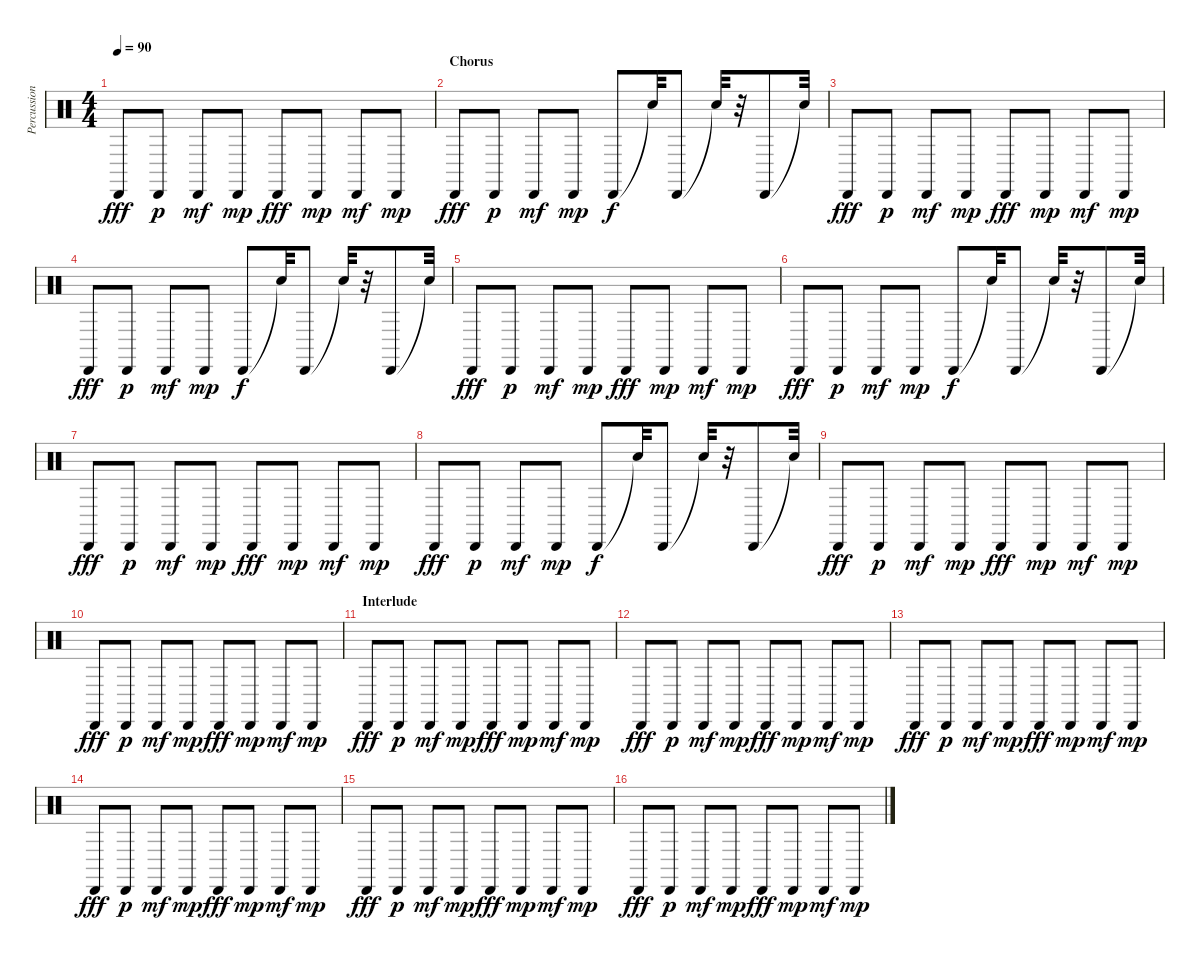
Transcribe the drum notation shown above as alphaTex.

\track ("Percussion" "Percussion") {instrument percussion}
\staff {score}
\articulation defaults
\ts (4 4)
\tempo 90
\clef neutral
\ks c "Cabasa (hit)".8{dy fff} "Cabasa (hit)".8{dy p} "Cabasa (hit)".8{dy mf} "Cabasa (hit)".8{dy mp} "Cabasa (hit)".8{dy fff} "Cabasa (hit)".8{dy mp} "Cabasa (hit)".8{dy mf} "Cabasa (hit)".8{dy mp}
|
\section ("" "Chorus")
"Cabasa (hit)".8{dy fff} "Cabasa (hit)".8{dy p} "Cabasa (hit)".8{dy mf} "Cabasa (hit)".8{dy mp} "Cabasa (hit)".8{dy f} "Snare (hit)"{t}.32 "Cabasa (hit)".8 "Snare (hit)"{t}.32 r.32 "Cabasa (hit)".8 "Snare (hit)"{t}.32 |
"Cabasa (hit)".8{dy fff} "Cabasa (hit)".8{dy p} "Cabasa (hit)".8{dy mf} "Cabasa (hit)".8{dy mp} "Cabasa (hit)".8{dy fff} "Cabasa (hit)".8{dy mp} "Cabasa (hit)".8{dy mf} "Cabasa (hit)".8{dy mp} |
"Cabasa (hit)".8{dy fff} "Cabasa (hit)".8{dy p} "Cabasa (hit)".8{dy mf} "Cabasa (hit)".8{dy mp} "Cabasa (hit)".8{dy f} "Snare (hit)"{t}.32 "Cabasa (hit)".8 "Snare (hit)"{t}.32 r.32 "Cabasa (hit)".8 "Snare (hit)"{t}.32 |
"Cabasa (hit)".8{dy fff} "Cabasa (hit)".8{dy p} "Cabasa (hit)".8{dy mf} "Cabasa (hit)".8{dy mp} "Cabasa (hit)".8{dy fff} "Cabasa (hit)".8{dy mp} "Cabasa (hit)".8{dy mf} "Cabasa (hit)".8{dy mp} |
"Cabasa (hit)".8{dy fff} "Cabasa (hit)".8{dy p} "Cabasa (hit)".8{dy mf} "Cabasa (hit)".8{dy mp} "Cabasa (hit)".8{dy f} "Snare (hit)"{t}.32 "Cabasa (hit)".8 "Snare (hit)"{t}.32 r.32 "Cabasa (hit)".8 "Snare (hit)"{t}.32 |
"Cabasa (hit)".8{dy fff} "Cabasa (hit)".8{dy p} "Cabasa (hit)".8{dy mf} "Cabasa (hit)".8{dy mp} "Cabasa (hit)".8{dy fff} "Cabasa (hit)".8{dy mp} "Cabasa (hit)".8{dy mf} "Cabasa (hit)".8{dy mp} |
"Cabasa (hit)".8{dy fff} "Cabasa (hit)".8{dy p} "Cabasa (hit)".8{dy mf} "Cabasa (hit)".8{dy mp} "Cabasa (hit)".8{dy f} "Snare (hit)"{t}.32 "Cabasa (hit)".8 "Snare (hit)"{t}.32 r.32 "Cabasa (hit)".8 "Snare (hit)"{t}.32 |
"Cabasa (hit)".8{dy fff} "Cabasa (hit)".8{dy p} "Cabasa (hit)".8{dy mf} "Cabasa (hit)".8{dy mp} "Cabasa (hit)".8{dy fff} "Cabasa (hit)".8{dy mp} "Cabasa (hit)".8{dy mf} "Cabasa (hit)".8{dy mp} |
"Cabasa (hit)".8{dy fff} "Cabasa (hit)".8{dy p} "Cabasa (hit)".8{dy mf} "Cabasa (hit)".8{dy mp} "Cabasa (hit)".8{dy fff} "Cabasa (hit)".8{dy mp} "Cabasa (hit)".8{dy mf} "Cabasa (hit)".8{dy mp} |
\section ("" "Interlude")
"Cabasa (hit)".8{dy fff} "Cabasa (hit)".8{dy p} "Cabasa (hit)".8{dy mf} "Cabasa (hit)".8{dy mp} "Cabasa (hit)".8{dy fff} "Cabasa (hit)".8{dy mp} "Cabasa (hit)".8{dy mf} "Cabasa (hit)".8{dy mp} |
"Cabasa (hit)".8{dy fff} "Cabasa (hit)".8{dy p} "Cabasa (hit)".8{dy mf} "Cabasa (hit)".8{dy mp} "Cabasa (hit)".8{dy fff} "Cabasa (hit)".8{dy mp} "Cabasa (hit)".8{dy mf} "Cabasa (hit)".8{dy mp} |
"Cabasa (hit)".8{dy fff} "Cabasa (hit)".8{dy p} "Cabasa (hit)".8{dy mf} "Cabasa (hit)".8{dy mp} "Cabasa (hit)".8{dy fff} "Cabasa (hit)".8{dy mp} "Cabasa (hit)".8{dy mf} "Cabasa (hit)".8{dy mp} |
"Cabasa (hit)".8{dy fff} "Cabasa (hit)".8{dy p} "Cabasa (hit)".8{dy mf} "Cabasa (hit)".8{dy mp} "Cabasa (hit)".8{dy fff} "Cabasa (hit)".8{dy mp} "Cabasa (hit)".8{dy mf} "Cabasa (hit)".8{dy mp} |
"Cabasa (hit)".8{dy fff} "Cabasa (hit)".8{dy p} "Cabasa (hit)".8{dy mf} "Cabasa (hit)".8{dy mp} "Cabasa (hit)".8{dy fff} "Cabasa (hit)".8{dy mp} "Cabasa (hit)".8{dy mf} "Cabasa (hit)".8{dy mp} |
"Cabasa (hit)".8{dy fff} "Cabasa (hit)".8{dy p} "Cabasa (hit)".8{dy mf} "Cabasa (hit)".8{dy mp} "Cabasa (hit)".8{dy fff} "Cabasa (hit)".8{dy mp} "Cabasa (hit)".8{dy mf} "Cabasa (hit)".8{dy mp}
